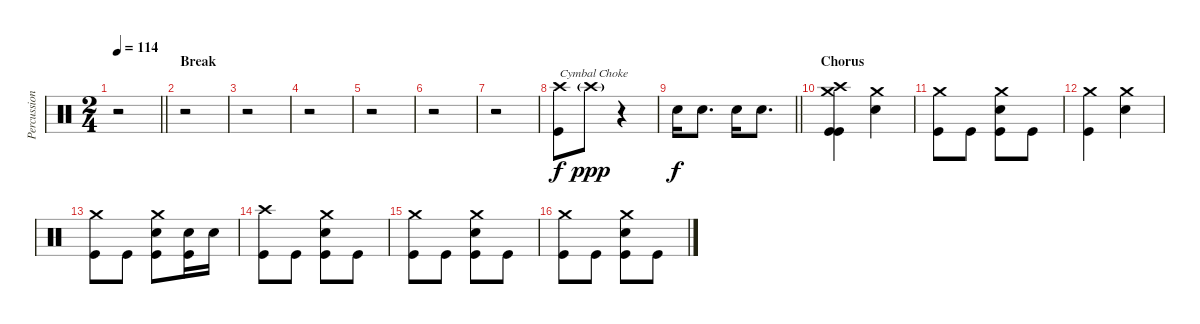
\track ("Percussion" "Percussion") {instrument percussion}
\staff {score}
\articulation defaults
\ts (2 4)
\tempo 114
\clef neutral
\barLineRight lightlight
\ks c
r.2{dy f} |
\section ("" "Break")
r.2 |
r.2 |
r.2 |
r.2 |
r.2 |
r.2 |
("Crash high (hit)" "Kick (hit)").8{txt "Cymbal Choke"} "Crash high (hit)"{g}.8{dy ppp} r.4 |
\barLineRight lightlight "Electric Snare (hit)".16{dy f} "Electric Snare (hit)".8{d} "Electric Snare (hit)".16 "Electric Snare (hit)".8{d}
|
\section ("" "Chorus")
("Crash high (hit)" "Crash medium (hit)" "Kick (hit)" "Kick (hit)").4 ("Crash medium (hit)" "Electric Snare (hit)").4 |
("Crash medium (hit)" "Kick (hit)").8 "Kick (hit)".8 ("Crash medium (hit)" "Electric Snare (hit)" "Kick (hit)").8 "Kick (hit)".8 |
("Crash medium (hit)" "Kick (hit)").4 ("Crash medium (hit)" "Electric Snare (hit)").4 |
("Crash medium (hit)" "Kick (hit)").8 "Kick (hit)".8 ("Crash medium (hit)" "Electric Snare (hit)" "Kick (hit)").8 ("Electric Snare (hit)" "Kick (hit)").16 "Electric Snare (hit)".16 |
("Crash high (hit)" "Kick (hit)").8 "Kick (hit)".8 ("Crash medium (hit)" "Electric Snare (hit)" "Kick (hit)").8 "Kick (hit)".8 |
("Crash medium (hit)" "Kick (hit)").8 "Kick (hit)".8 ("Crash medium (hit)" "Electric Snare (hit)" "Kick (hit)").8 "Kick (hit)".8 |
("Crash medium (hit)" "Kick (hit)").8 "Kick (hit)".8 ("Crash medium (hit)" "Electric Snare (hit)" "Kick (hit)").8 "Kick (hit)".8
